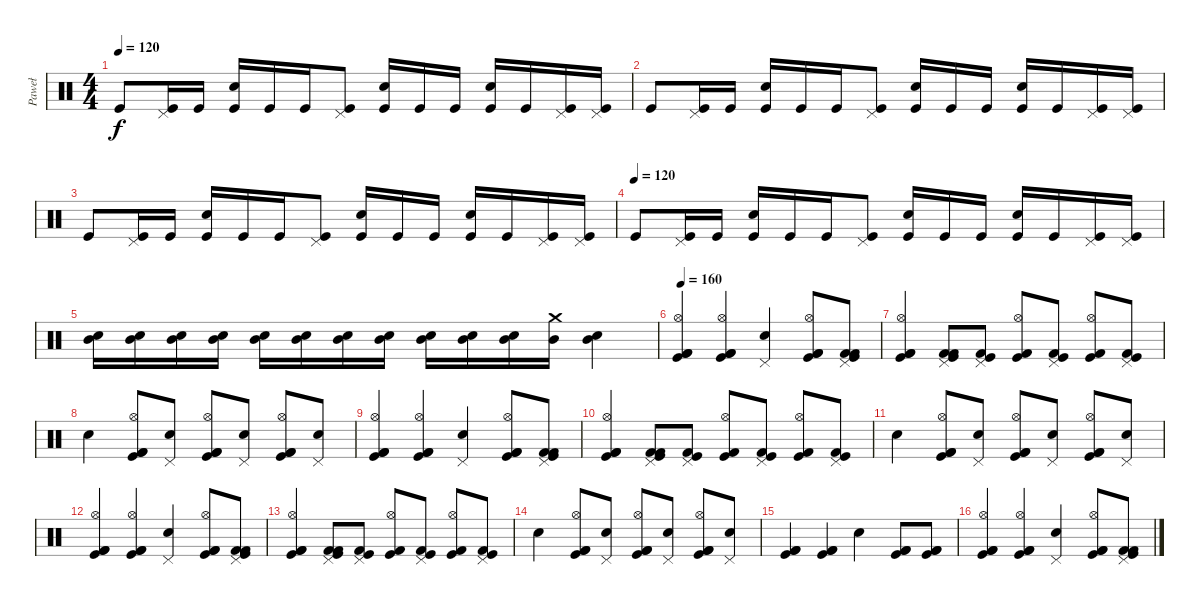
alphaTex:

\track ("Paweł" "Paweł") {instrument percussion}
\staff {score}
\articulation defaults
\ts (4 4)
\tempo 120
\clef neutral
\ks c "Kick (hit)".8{dy f}
("Pedal Hi-Hat (hit)" "Kick (hit)").16 "Kick (hit)".16 ("Snare (hit) 2" "Kick (hit)").16 "Kick (hit)".16 "Kick (hit)".16 ("Pedal Hi-Hat (hit)" "Kick (hit)").8 ("Snare (hit) 2" "Kick (hit)").16 "Kick (hit)".16 "Kick (hit)".16 ("Snare (hit) 2" "Kick (hit)").16 "Kick (hit)".16 ("Pedal Hi-Hat (hit)" "Kick (hit)").16 ("Pedal Hi-Hat (hit)" "Kick (hit)").16 |
"Kick (hit)".8 ("Pedal Hi-Hat (hit)" "Kick (hit)").16 "Kick (hit)".16 ("Snare (hit) 2" "Kick (hit)").16 "Kick (hit)".16 "Kick (hit)".16 ("Pedal Hi-Hat (hit)" "Kick (hit)").8 ("Snare (hit) 2" "Kick (hit)").16 "Kick (hit)".16 "Kick (hit)".16 ("Snare (hit) 2" "Kick (hit)").16 "Kick (hit)".16 ("Pedal Hi-Hat (hit)" "Kick (hit)").16 ("Pedal Hi-Hat (hit)" "Kick (hit)").16 |
"Kick (hit)".8 ("Pedal Hi-Hat (hit)" "Kick (hit)").16 "Kick (hit)".16 ("Snare (hit) 2" "Kick (hit)").16 "Kick (hit)".16 "Kick (hit)".16 ("Pedal Hi-Hat (hit)" "Kick (hit)").8 ("Snare (hit) 2" "Kick (hit)").16 "Kick (hit)".16 "Kick (hit)".16 ("Snare (hit) 2" "Kick (hit)").16 "Kick (hit)".16 ("Pedal Hi-Hat (hit)" "Kick (hit)").16 ("Pedal Hi-Hat (hit)" "Kick (hit)").16 |
\tempo (120)
"Kick (hit)".8 ("Pedal Hi-Hat (hit)" "Kick (hit)").16 "Kick (hit)".16 ("Snare (hit) 2" "Kick (hit)").16 "Kick (hit)".16 "Kick (hit)".16 ("Pedal Hi-Hat (hit)" "Kick (hit)").8 ("Snare (hit) 2" "Kick (hit)").16 "Kick (hit)".16 "Kick (hit)".16 ("Snare (hit) 2" "Kick (hit)").16 "Kick (hit)".16 ("Pedal Hi-Hat (hit)" "Kick (hit)").16 ("Pedal Hi-Hat (hit)" "Kick (hit)").16 |
("Snare (hit) 2" "Mid Tom (hit)").16{volume 5} ("Snare (hit) 2" "Mid Tom (hit)").16{volume 6} ("Snare (hit) 2" "Mid Tom (hit)").16{volume 7} ("Snare (hit) 2" "Mid Tom (hit)").16{volume 8} ("Snare (hit) 2" "Mid Tom (hit)").16{volume 8} ("Snare (hit) 2" "Mid Tom (hit)").16{volume 9} ("Snare (hit) 2" "Mid Tom (hit)").16{volume 10} ("Snare (hit) 2" "Mid Tom (hit)").16{volume 16} ("Snare (hit) 2" "Mid Tom (hit)").16 ("Snare (hit) 2" "Mid Tom (hit)").16 ("Snare (hit) 2" "Mid Tom (hit)").16 ("Crash medium (hit)" "Mid Tom (hit)").16 ("Snare (hit) 2" "Mid Tom (hit)").4 |
\tempo 160
("Hi-Hat (open)" "Kick (hit) 2" "Kick (hit)" "Kick (hit) 2").4 ("Hi-Hat (open)" "Kick (hit) 2" "Kick (hit)" "Kick (hit) 2").4 ("Pedal Hi-Hat (hit)" "Snare (hit) 2").4 ("Hi-Hat (open)" "Kick (hit) 2" "Kick (hit)" "Kick (hit) 2").8 ("Pedal Hi-Hat (hit)" "Kick (hit) 2" "Kick (hit)" "Kick (hit) 2").8 |
("Hi-Hat (open)" "Kick (hit) 2" "Kick (hit)" "Kick (hit) 2").4 ("Pedal Hi-Hat (hit)" "Kick (hit) 2" "Kick (hit)" "Kick (hit) 2").8 ("Pedal Hi-Hat (hit)" "Kick (hit)" "Kick (hit) 2").8 ("Hi-Hat (open)" "Kick (hit)" "Kick (hit) 2").8 ("Pedal Hi-Hat (hit)" "Kick (hit)" "Kick (hit) 2").8 ("Hi-Hat (open)" "Kick (hit)" "Kick (hit) 2").8 ("Pedal Hi-Hat (hit)" "Kick (hit)" "Kick (hit) 2").8 |
"Snare (hit) 2".4 ("Kick (hit) 2" "Kick (hit) 2" "Hi-Hat (open)" "Kick (hit)").8 ("Pedal Hi-Hat (hit)" "Snare (hit) 2").8 ("Kick (hit) 2" "Kick (hit) 2" "Hi-Hat (open)" "Kick (hit)").8 ("Pedal Hi-Hat (hit)" "Snare (hit) 2").8 ("Kick (hit) 2" "Kick (hit) 2" "Hi-Hat (open)" "Kick (hit)").8 ("Pedal Hi-Hat (hit)" "Snare (hit) 2").8 |
("Hi-Hat (open)" "Kick (hit) 2" "Kick (hit)" "Kick (hit) 2").4 ("Hi-Hat (open)" "Kick (hit) 2" "Kick (hit)" "Kick (hit) 2").4 ("Pedal Hi-Hat (hit)" "Snare (hit) 2").4 ("Hi-Hat (open)" "Kick (hit) 2" "Kick (hit)" "Kick (hit) 2").8 ("Pedal Hi-Hat (hit)" "Kick (hit) 2" "Kick (hit)" "Kick (hit) 2").8 |
("Hi-Hat (open)" "Kick (hit) 2" "Kick (hit)" "Kick (hit) 2").4 ("Pedal Hi-Hat (hit)" "Kick (hit) 2" "Kick (hit)" "Kick (hit) 2").8 ("Pedal Hi-Hat (hit)" "Kick (hit)" "Kick (hit) 2").8 ("Hi-Hat (open)" "Kick (hit)" "Kick (hit) 2").8 ("Pedal Hi-Hat (hit)" "Kick (hit)" "Kick (hit) 2").8 ("Hi-Hat (open)" "Kick (hit)" "Kick (hit) 2").8 ("Pedal Hi-Hat (hit)" "Kick (hit)" "Kick (hit) 2").8 |
"Snare (hit) 2".4 ("Kick (hit) 2" "Kick (hit) 2" "Hi-Hat (open)" "Kick (hit)").8 ("Pedal Hi-Hat (hit)" "Snare (hit) 2").8 ("Kick (hit) 2" "Kick (hit) 2" "Hi-Hat (open)" "Kick (hit)").8 ("Pedal Hi-Hat (hit)" "Snare (hit) 2").8 ("Kick (hit) 2" "Kick (hit) 2" "Hi-Hat (open)" "Kick (hit)").8 ("Pedal Hi-Hat (hit)" "Snare (hit) 2").8 |
("Hi-Hat (open)" "Kick (hit) 2" "Kick (hit)" "Kick (hit) 2").4 ("Hi-Hat (open)" "Kick (hit) 2" "Kick (hit)" "Kick (hit) 2").4 ("Pedal Hi-Hat (hit)" "Snare (hit) 2").4 ("Hi-Hat (open)" "Kick (hit) 2" "Kick (hit)" "Kick (hit) 2").8 ("Pedal Hi-Hat (hit)" "Kick (hit) 2" "Kick (hit)" "Kick (hit) 2").8 |
("Hi-Hat (open)" "Kick (hit) 2" "Kick (hit)" "Kick (hit) 2").4 ("Pedal Hi-Hat (hit)" "Kick (hit) 2" "Kick (hit)" "Kick (hit) 2").8 ("Pedal Hi-Hat (hit)" "Kick (hit)" "Kick (hit) 2").8 ("Hi-Hat (open)" "Kick (hit)" "Kick (hit) 2").8 ("Pedal Hi-Hat (hit)" "Kick (hit)" "Kick (hit) 2").8 ("Hi-Hat (open)" "Kick (hit)" "Kick (hit) 2").8 ("Pedal Hi-Hat (hit)" "Kick (hit)" "Kick (hit) 2").8 |
"Snare (hit) 2".4 ("Kick (hit) 2" "Kick (hit) 2" "Hi-Hat (open)" "Kick (hit)").8 ("Pedal Hi-Hat (hit)" "Snare (hit) 2").8 ("Kick (hit) 2" "Kick (hit) 2" "Hi-Hat (open)" "Kick (hit)").8 ("Pedal Hi-Hat (hit)" "Snare (hit) 2").8 ("Kick (hit) 2" "Kick (hit) 2" "Hi-Hat (open)" "Kick (hit)").8 ("Pedal Hi-Hat (hit)" "Snare (hit) 2").8 |
("Kick (hit) 2" "Kick (hit)" "Kick (hit) 2").4 ("Kick (hit) 2" "Kick (hit)" "Kick (hit) 2").4 "Snare (hit) 2".4 ("Kick (hit) 2" "Kick (hit)" "Kick (hit) 2").8 ("Kick (hit) 2" "Kick (hit)" "Kick (hit) 2").8 |
("Hi-Hat (open)" "Kick (hit) 2" "Kick (hit)" "Kick (hit) 2").4 ("Hi-Hat (open)" "Kick (hit) 2" "Kick (hit)" "Kick (hit) 2").4 ("Pedal Hi-Hat (hit)" "Snare (hit) 2").4 ("Hi-Hat (open)" "Kick (hit) 2" "Kick (hit)" "Kick (hit) 2").8 ("Pedal Hi-Hat (hit)" "Kick (hit) 2" "Kick (hit)" "Kick (hit) 2").8
